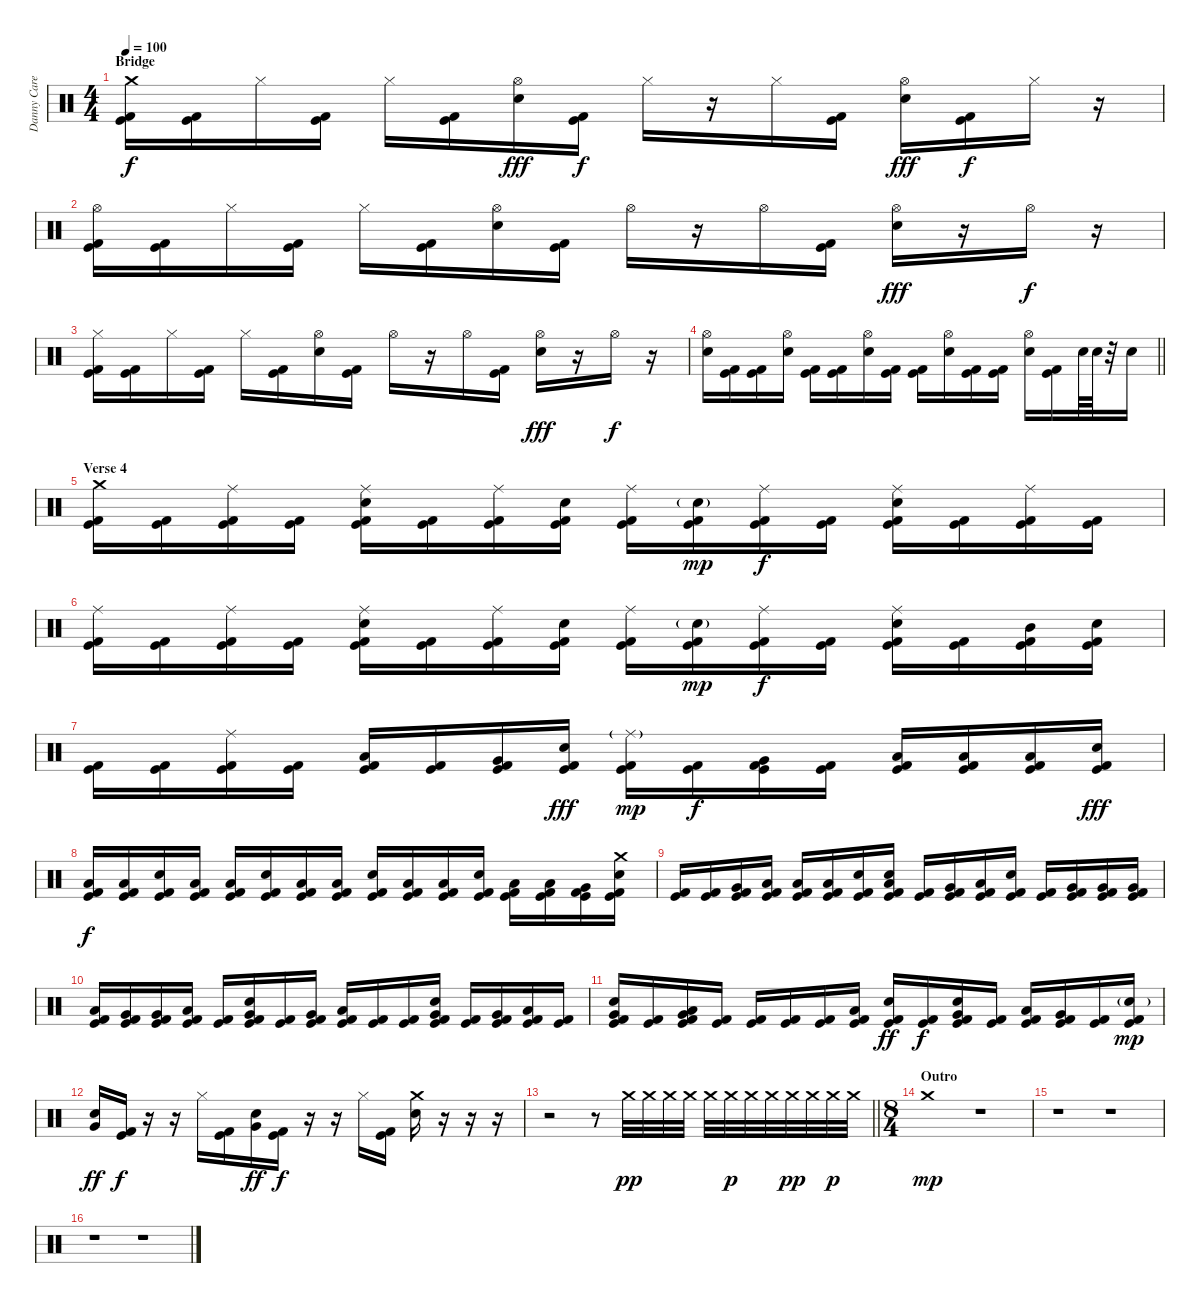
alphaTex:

\track ("Danny Carey - Percussion" "Danny Care") {instrument percussion}
\staff {score}
\articulation defaults
\ts (4 4)
\section ("" "Bridge")
\tempo 100
\clef neutral
\ks c
("Crash medium (hit)" "Kick (hit)" "Kick (hit) 2").16{dy f} ("Kick (hit)" "Kick (hit) 2").16 "Hi-Hat (closed)".16 ("Kick (hit)" "Kick (hit) 2").16 "Hi-Hat (closed)".16 ("Kick (hit)" "Kick (hit) 2").16 ("Hi-Hat (open)" "Electric Snare (hit)").16{dy fff} ("Kick (hit)" "Kick (hit) 2").16{dy f} "Hi-Hat (closed)".16 r.16 "Hi-Hat (closed)".16 ("Kick (hit)" "Kick (hit) 2").16 ("Hi-Hat (open)" "Electric Snare (hit)").16{dy fff} ("Kick (hit)" "Kick (hit) 2").16{dy f} "Hi-Hat (closed)".16 r.16 |
("Hi-Hat (open)" "Kick (hit)" "Kick (hit) 2").16 ("Kick (hit)" "Kick (hit) 2").16 "Hi-Hat (closed)".16 ("Kick (hit)" "Kick (hit) 2").16 "Hi-Hat (closed)".16 ("Kick (hit)" "Kick (hit) 2").16 ("Hi-Hat (open)" "Electric Snare (hit)").16 ("Kick (hit)" "Kick (hit) 2").16 "Hi-Hat (open)".16 r.16 "Hi-Hat (open)".16 ("Kick (hit)" "Kick (hit) 2").16 ("Hi-Hat (open)" "Electric Snare (hit)").16{dy fff} r.16 "Hi-Hat (open)".16{dy f} r.16 |
("Hi-Hat (closed)" "Kick (hit)" "Kick (hit) 2").16 ("Kick (hit)" "Kick (hit) 2").16 "Hi-Hat (closed)".16 ("Kick (hit)" "Kick (hit) 2").16 "Hi-Hat (closed)".16 ("Kick (hit)" "Kick (hit) 2").16 ("Hi-Hat (open)" "Electric Snare (hit)").16 ("Kick (hit)" "Kick (hit) 2").16 "Hi-Hat (open)".16 r.16 "Hi-Hat (open)".16 ("Kick (hit)" "Kick (hit) 2").16 ("Hi-Hat (open)" "Electric Snare (hit)").16{dy fff} r.16 "Hi-Hat (open)".16{dy f} r.16 |
\barLineRight lightlight
("Hi-Hat (open)" "Electric Snare (hit)").16 ("Kick (hit)" "Kick (hit) 2").16 ("Kick (hit)" "Kick (hit) 2").16 ("Hi-Hat (open)" "Electric Snare (hit)").16 ("Kick (hit)" "Kick (hit) 2").16 ("Kick (hit)" "Kick (hit) 2").16 ("Hi-Hat (open)" "Electric Snare (hit)").16 ("Kick (hit)" "Kick (hit) 2").16 ("Kick (hit)" "Kick (hit) 2").16 ("Hi-Hat (open)" "Electric Snare (hit)").16 ("Kick (hit)" "Kick (hit) 2").16 ("Kick (hit)" "Kick (hit) 2").16 ("Hi-Hat (open)" "Electric Snare (hit)").16 ("Kick (hit)" "Kick (hit) 2").16 "Electric Snare (hit)".64 "Electric Snare (hit)".64 r.32 "Electric Snare (hit)".16 |
\section ("" "Verse 4")
("Crash medium (hit)" "Kick (hit)" "Kick (hit) 2").16 ("Kick (hit)" "Kick (hit) 2").16 ("Ride (middle)" "Kick (hit)" "Kick (hit) 2").16 ("Kick (hit)" "Kick (hit) 2").16 ("Ride (middle)" "Electric Snare (hit)" "Kick (hit)" "Kick (hit) 2").16 ("Kick (hit)" "Kick (hit) 2").16 ("Ride (middle)" "Kick (hit)" "Kick (hit) 2").16 ("Electric Snare (hit)" "Kick (hit)" "Kick (hit) 2").16 ("Ride (middle)" "Kick (hit)" "Kick (hit) 2").16 ("Electric Snare (hit)"{g} "Kick (hit)" "Kick (hit) 2").16{dy mp} ("Ride (middle)" "Kick (hit)" "Kick (hit) 2").16{dy f} ("Kick (hit)" "Kick (hit) 2").16 ("Ride (middle)" "Electric Snare (hit)" "Kick (hit)" "Kick (hit) 2").16 ("Kick (hit)" "Kick (hit) 2").16 ("Ride (middle)" "Kick (hit)" "Kick (hit) 2").16 ("Kick (hit)" "Kick (hit) 2").16 |
("Ride (middle)" "Kick (hit)" "Kick (hit) 2").16 ("Kick (hit)" "Kick (hit) 2").16 ("Ride (middle)" "Kick (hit)" "Kick (hit) 2").16 ("Kick (hit)" "Kick (hit) 2").16 ("Ride (middle)" "Electric Snare (hit)" "Kick (hit)" "Kick (hit) 2").16 ("Kick (hit)" "Kick (hit) 2").16 ("Ride (middle)" "Kick (hit)" "Kick (hit) 2").16 ("Electric Snare (hit)" "Kick (hit)" "Kick (hit) 2").16 ("Ride (middle)" "Kick (hit)" "Kick (hit) 2").16 ("Electric Snare (hit)"{g} "Kick (hit)" "Kick (hit) 2").16{dy mp} ("Ride (middle)" "Kick (hit)" "Kick (hit) 2").16{dy f} ("Kick (hit)" "Kick (hit) 2").16 ("Ride (middle)" "Electric Snare (hit)" "Kick (hit)" "Kick (hit) 2").16 ("Kick (hit)" "Kick (hit) 2").16 ("Mid Tom (hit)" "Kick (hit)" "Kick (hit) 2").16 ("Electric Snare (hit)" "Kick (hit)" "Kick (hit) 2").16 |
("Kick (hit)" "Kick (hit) 2").16 ("Kick (hit)" "Kick (hit) 2").16 ("Ride (middle)" "Kick (hit)" "Kick (hit) 2").16 ("Kick (hit)" "Kick (hit) 2").16 ("Low Tom (hit)" "Kick (hit)" "Kick (hit) 2").16 ("Kick (hit)" "Kick (hit) 2").16 ("Very Low Tom (hit)" "Kick (hit)" "Kick (hit) 2").16 ("Electric Snare (hit)" "Kick (hit)" "Kick (hit) 2").16{dy fff} ("Ride (middle)"{g} "Kick (hit)" "Kick (hit) 2").16{dy mp} ("Kick (hit)" "Kick (hit) 2").16{dy f} ("Very Low Tom (hit)" "Kick (hit)" "Kick (hit) 2").16 ("Kick (hit)" "Kick (hit) 2").16 ("Low Floor Tom (hit)" "Kick (hit)" "Kick (hit) 2").16 ("Low Floor Tom (hit)" "Kick (hit)" "Kick (hit) 2").16 ("Low Floor Tom (hit)" "Kick (hit)" "Kick (hit) 2").16 ("Electric Snare (hit)" "Kick (hit)" "Kick (hit) 2").16{dy fff} |
("Low Floor Tom (hit)" "Kick (hit)" "Kick (hit) 2").16{dy f} ("Low Floor Tom (hit)" "Kick (hit)" "Kick (hit) 2").16 ("Electric Snare (hit)" "Kick (hit)" "Kick (hit) 2").16 ("Low Floor Tom (hit)" "Kick (hit)" "Kick (hit) 2").16 ("Low Floor Tom (hit)" "Kick (hit)" "Kick (hit) 2").16 ("Electric Snare (hit)" "Kick (hit)" "Kick (hit) 2").16 ("Low Floor Tom (hit)" "Kick (hit)" "Kick (hit) 2").16 ("Low Floor Tom (hit)" "Kick (hit)" "Kick (hit) 2").16 ("Electric Snare (hit)" "Kick (hit)" "Kick (hit) 2").16 ("Low Floor Tom (hit)" "Kick (hit)" "Kick (hit) 2").16 ("Low Floor Tom (hit)" "Kick (hit)" "Kick (hit) 2").16 ("Electric Snare (hit)" "Kick (hit)" "Kick (hit) 2").16 ("Low Floor Tom (hit)" "Kick (hit)" "Kick (hit) 2").16 ("Low Floor Tom (hit)" "Kick (hit)" "Kick (hit) 2").16 ("Very Low Tom (hit)" "Kick (hit)" "Kick (hit) 2").16 ("Crash medium (hit)" "Electric Snare (hit)" "Kick (hit)" "Kick (hit) 2").16 |
("Kick (hit)" "Kick (hit) 2").16 ("Kick (hit)" "Kick (hit) 2").16 ("Very Low Tom (hit)" "Kick (hit)" "Kick (hit) 2").16 ("Low Floor Tom (hit)" "Kick (hit)" "Kick (hit) 2").16 ("Low Tom (hit)" "Kick (hit)" "Kick (hit) 2").16 ("Low Floor Tom (hit)" "Kick (hit)" "Kick (hit) 2").16 ("Electric Snare (hit)" "Kick (hit)" "Kick (hit) 2").16 ("Low Floor Tom (hit)" "Electric Snare (hit)" "Kick (hit)" "Kick (hit) 2").16 ("Kick (hit)" "Kick (hit) 2").16 ("Very Low Tom (hit)" "Kick (hit)" "Kick (hit) 2").16 ("Low Floor Tom (hit)" "Kick (hit)" "Kick (hit) 2").16 ("Electric Snare (hit)" "Kick (hit)" "Kick (hit) 2").16 ("Kick (hit)" "Kick (hit) 2").16 ("Very Low Tom (hit)" "Kick (hit)" "Kick (hit) 2").16 ("Very Low Tom (hit)" "Kick (hit)" "Kick (hit) 2").16 ("Very Low Tom (hit)" "Kick (hit)" "Kick (hit) 2").16 |
("Low Tom (hit)" "Kick (hit)" "Kick (hit) 2").16 ("Very Low Tom (hit)" "Kick (hit)" "Kick (hit) 2").16 ("Very Low Tom (hit)" "Kick (hit)" "Kick (hit) 2").16 ("Low Floor Tom (hit)" "Kick (hit)" "Kick (hit) 2").16 ("Kick (hit)" "Kick (hit) 2").16 ("Very Low Tom (hit)" "Electric Snare (hit)" "Kick (hit)" "Kick (hit) 2").16 ("Kick (hit)" "Kick (hit) 2").16 ("Very Low Tom (hit)" "Kick (hit)" "Kick (hit) 2").16 ("Low Tom (hit)" "Kick (hit)" "Kick (hit) 2").16 ("Kick (hit)" "Kick (hit) 2").16 ("Kick (hit)" "Kick (hit) 2").16 ("Very Low Tom (hit)" "Electric Snare (hit)" "Kick (hit)" "Kick (hit) 2").16 ("Kick (hit)" "Kick (hit) 2").16 ("Very Low Tom (hit)" "Kick (hit)" "Kick (hit) 2").16 ("Low Tom (hit)" "Kick (hit)" "Kick (hit) 2").16 ("Kick (hit)" "Kick (hit) 2").16 |
("Very Low Tom (hit)" "Electric Snare (hit)" "Kick (hit)" "Kick (hit) 2").16 ("Kick (hit)" "Kick (hit) 2").16 ("Low Floor Tom (hit)" "Very Low Tom (hit)" "Kick (hit)" "Kick (hit) 2").16 ("Kick (hit)" "Kick (hit) 2").16 ("Kick (hit)" "Kick (hit) 2").16 ("Kick (hit)" "Kick (hit) 2").16 ("Kick (hit)" "Kick (hit) 2").16 ("Low Floor Tom (hit)" "Kick (hit)" "Kick (hit) 2").16 ("Electric Snare (hit)" "Kick (hit)" "Kick (hit) 2").16{dy ff} ("Kick (hit)" "Kick (hit) 2").16{dy f} ("Very Low Tom (hit)" "Electric Snare (hit)" "Kick (hit)" "Kick (hit) 2").16 ("Kick (hit)" "Kick (hit) 2").16 ("Low Floor Tom (hit)" "Kick (hit)" "Kick (hit) 2").16 ("Very Low Tom (hit)" "Kick (hit)" "Kick (hit) 2").16 ("Kick (hit)" "Kick (hit) 2").16 ("Electric Snare (hit)"{g} "Kick (hit)" "Kick (hit) 2").16{dy mp} |
("Very Low Tom (hit)" "Electric Snare (hit)").16{dy ff} ("Kick (hit)" "Kick (hit) 2").16{dy f} r.16 r.16 "Hi-Hat (closed)".16 ("Kick (hit)" "Kick (hit) 2").16 ("Very Low Tom (hit)" "Electric Snare (hit)").16{dy ff} ("Kick (hit)" "Kick (hit) 2").16{dy f} r.16 r.16 "Hi-Hat (closed)".16 ("Kick (hit)" "Kick (hit) 2").16 ("Crash medium (hit)" "Electric Snare (hit)").16 r.16 r.16 r.16 |
\barLineRight lightlight
r.2 r.8 "Crash medium (hit)".32{dy pp} "Crash medium (hit)".32 "Crash medium (hit)".32 "Crash medium (hit)".32 "Crash medium (hit)".32 "Crash medium (hit)".32{dy p} "Crash medium (hit)".32 "Crash medium (hit)".32 "Crash medium (hit)".32{dy pp} "Crash medium (hit)".32 "Crash medium (hit)".32{dy p} "Crash medium (hit)".32 |
\ts (8 4)
\section ("" "Outro")
"Crash medium (hit)".1{dy mp} r.1 |
r.1 r.1 |
r.1 r.1
